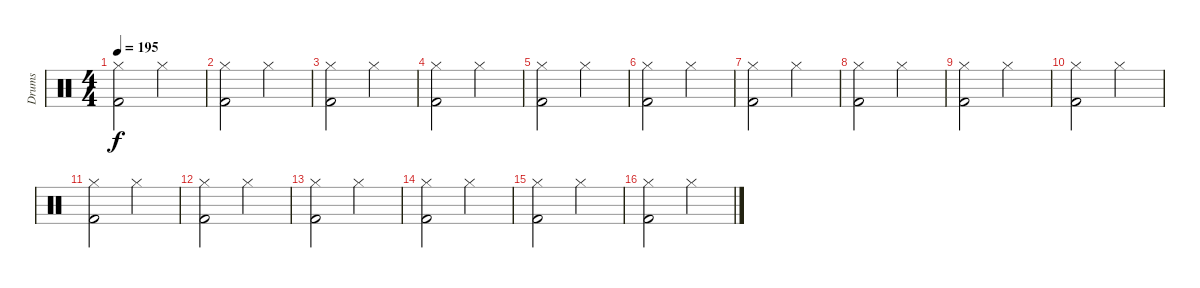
\track ("Drums" "Drums") {instrument percussion}
\staff {score}
\articulation defaults
\ts (4 4)
\tempo 195
\clef neutral
\ks c
("Hi-Hat (closed)" "Kick (hit) 2").2{dy f} "Hi-Hat (closed)".2 |
("Hi-Hat (closed)" "Kick (hit) 2").2 "Hi-Hat (closed)".2 |
("Hi-Hat (closed)" "Kick (hit) 2").2 "Hi-Hat (closed)".2 |
("Hi-Hat (closed)" "Kick (hit) 2").2 "Hi-Hat (closed)".2 |
("Hi-Hat (closed)" "Kick (hit) 2").2 "Hi-Hat (closed)".2 |
("Hi-Hat (closed)" "Kick (hit) 2").2 "Hi-Hat (closed)".2 |
("Hi-Hat (closed)" "Kick (hit) 2").2 "Hi-Hat (closed)".2 |
("Hi-Hat (closed)" "Kick (hit) 2").2 "Hi-Hat (closed)".2 |
("Hi-Hat (closed)" "Kick (hit) 2").2 "Hi-Hat (closed)".2 |
("Hi-Hat (closed)" "Kick (hit) 2").2 "Hi-Hat (closed)".2 |
("Hi-Hat (closed)" "Kick (hit) 2").2 "Hi-Hat (closed)".2 |
("Hi-Hat (closed)" "Kick (hit) 2").2 "Hi-Hat (closed)".2 |
("Hi-Hat (closed)" "Kick (hit) 2").2 "Hi-Hat (closed)".2 |
("Hi-Hat (closed)" "Kick (hit) 2").2 "Hi-Hat (closed)".2 |
("Hi-Hat (closed)" "Kick (hit) 2").2 "Hi-Hat (closed)".2 |
("Hi-Hat (closed)" "Kick (hit) 2").2 "Hi-Hat (closed)".2
